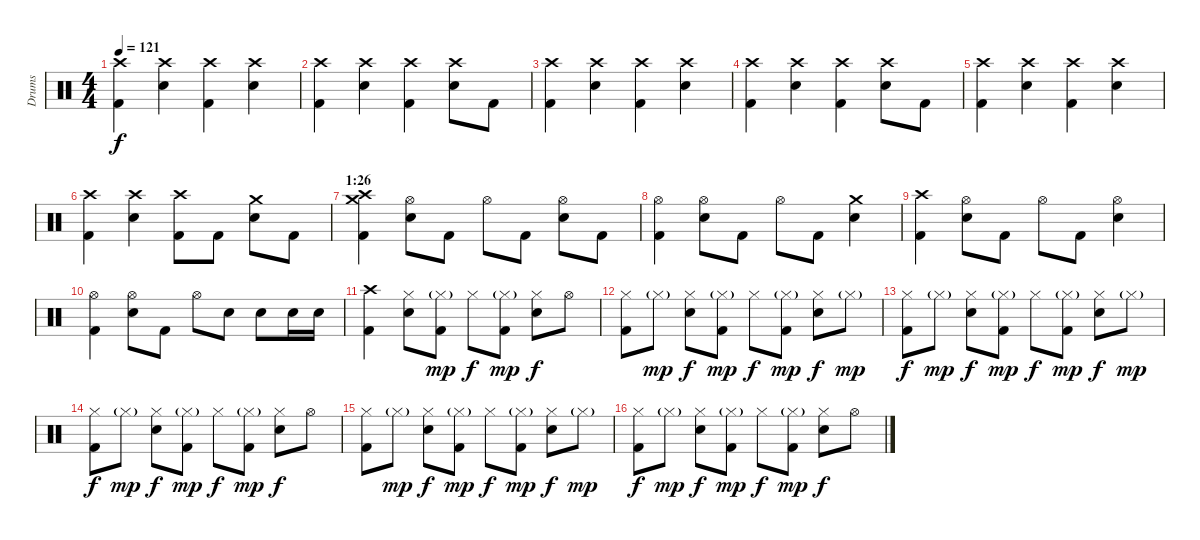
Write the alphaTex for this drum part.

\track ("Drums" "Drums") {instrument percussion}
\staff {score}
\articulation defaults
\ts (4 4)
\tempo 121
\clef neutral
\ks c
("Crash high (hit)" "Kick (hit) 2").4{dy f} ("Crash high (hit)" "Snare (hit) 2").4 ("Crash high (hit)" "Kick (hit) 2").4 ("Crash high (hit)" "Snare (hit) 2").4 |
("Crash high (hit)" "Kick (hit) 2").4 ("Crash high (hit)" "Snare (hit) 2").4 ("Crash high (hit)" "Kick (hit) 2").4 ("Crash high (hit)" "Snare (hit) 2").8 "Kick (hit) 2".8 |
("Crash high (hit)" "Kick (hit) 2").4 ("Crash high (hit)" "Snare (hit) 2").4 ("Crash high (hit)" "Kick (hit) 2").4 ("Crash high (hit)" "Snare (hit) 2").4 |
("Crash high (hit)" "Kick (hit) 2").4 ("Crash high (hit)" "Snare (hit) 2").4 ("Crash high (hit)" "Kick (hit) 2").4 ("Crash high (hit)" "Snare (hit) 2").8 "Kick (hit) 2".8 |
("Crash high (hit)" "Kick (hit) 2").4 ("Crash high (hit)" "Snare (hit) 2").4 ("Crash high (hit)" "Kick (hit) 2").4 ("Crash high (hit)" "Snare (hit) 2").4 |
("Crash high (hit)" "Kick (hit) 2").4 ("Crash high (hit)" "Snare (hit) 2").4 ("Crash high (hit)" "Kick (hit) 2").8 "Kick (hit) 2".8 ("Crash medium (hit)" "Snare (hit) 2").8 "Kick (hit) 2".8 |
\section ("" "1:26")
("Crash high (hit)" "Crash medium (hit)" "Kick (hit) 2").4 ("Hi-Hat (open)" "Snare (hit) 2").8 "Kick (hit) 2".8 "Hi-Hat (open)".8 "Kick (hit) 2".8 ("Hi-Hat (open)" "Snare (hit) 2").8 "Kick (hit) 2".8 |
("Hi-Hat (open)" "Kick (hit) 2").4 ("Hi-Hat (open)" "Snare (hit) 2").8 "Kick (hit) 2".8 "Hi-Hat (open)".8 "Kick (hit) 2".8 ("Crash medium (hit)" "Snare (hit) 2").4 |
("Crash high (hit)" "Kick (hit) 2").4 ("Hi-Hat (open)" "Snare (hit) 2").8 "Kick (hit) 2".8 "Hi-Hat (open)".8 "Kick (hit) 2".8 ("Hi-Hat (open)" "Snare (hit) 2").4 |
("Hi-Hat (open)" "Kick (hit) 2").4 ("Hi-Hat (open)" "Snare (hit) 2").8 "Kick (hit) 2".8 "Hi-Hat (open)".8 "Snare (hit) 2".8 "Snare (hit) 2".8 "Snare (hit) 2".16 "Snare (hit) 2".16 |
("Crash high (hit)" "Kick (hit) 2").4 ("Hi-Hat (closed)" "Snare (hit) 2").8 ("Hi-Hat (closed)"{g} "Kick (hit) 2").8{dy mp} "Hi-Hat (closed)".8{dy f} ("Hi-Hat (closed)"{g} "Kick (hit) 2").8{dy mp} ("Hi-Hat (closed)" "Snare (hit) 2").8{dy f} "Hi-Hat (open)".8 |
("Hi-Hat (closed)" "Kick (hit) 2").8 "Hi-Hat (closed)"{g}.8{dy mp} ("Hi-Hat (closed)" "Snare (hit) 2").8{dy f} ("Hi-Hat (closed)"{g} "Kick (hit) 2").8{dy mp} "Hi-Hat (closed)".8{dy f} ("Hi-Hat (closed)"{g} "Kick (hit) 2").8{dy mp} ("Hi-Hat (closed)" "Snare (hit) 2").8{dy f} "Hi-Hat (closed)"{g}.8{dy mp} |
("Hi-Hat (closed)" "Kick (hit) 2").8{dy f} "Hi-Hat (closed)"{g}.8{dy mp} ("Hi-Hat (closed)" "Snare (hit) 2").8{dy f} ("Hi-Hat (closed)"{g} "Kick (hit) 2").8{dy mp} "Hi-Hat (closed)".8{dy f} ("Hi-Hat (closed)"{g} "Kick (hit) 2").8{dy mp} ("Hi-Hat (closed)" "Snare (hit) 2").8{dy f} "Hi-Hat (closed)"{g}.8{dy mp} |
("Hi-Hat (closed)" "Kick (hit) 2").8{dy f} "Hi-Hat (closed)"{g}.8{dy mp} ("Hi-Hat (closed)" "Snare (hit) 2").8{dy f} ("Hi-Hat (closed)"{g} "Kick (hit) 2").8{dy mp} "Hi-Hat (closed)".8{dy f} ("Hi-Hat (closed)"{g} "Kick (hit) 2").8{dy mp} ("Hi-Hat (closed)" "Snare (hit) 2").8{dy f} "Hi-Hat (open)".8 |
("Hi-Hat (closed)" "Kick (hit) 2").8 "Hi-Hat (closed)"{g}.8{dy mp} ("Hi-Hat (closed)" "Snare (hit) 2").8{dy f} ("Hi-Hat (closed)"{g} "Kick (hit) 2").8{dy mp} "Hi-Hat (closed)".8{dy f} ("Hi-Hat (closed)"{g} "Kick (hit) 2").8{dy mp} ("Hi-Hat (closed)" "Snare (hit) 2").8{dy f} "Hi-Hat (closed)"{g}.8{dy mp} |
("Hi-Hat (closed)" "Kick (hit) 2").8{dy f} "Hi-Hat (closed)"{g}.8{dy mp} ("Hi-Hat (closed)" "Snare (hit) 2").8{dy f} ("Hi-Hat (closed)"{g} "Kick (hit) 2").8{dy mp} "Hi-Hat (closed)".8{dy f} ("Hi-Hat (closed)"{g} "Kick (hit) 2").8{dy mp} ("Hi-Hat (closed)" "Snare (hit) 2").8{dy f} "Hi-Hat (open)".8
